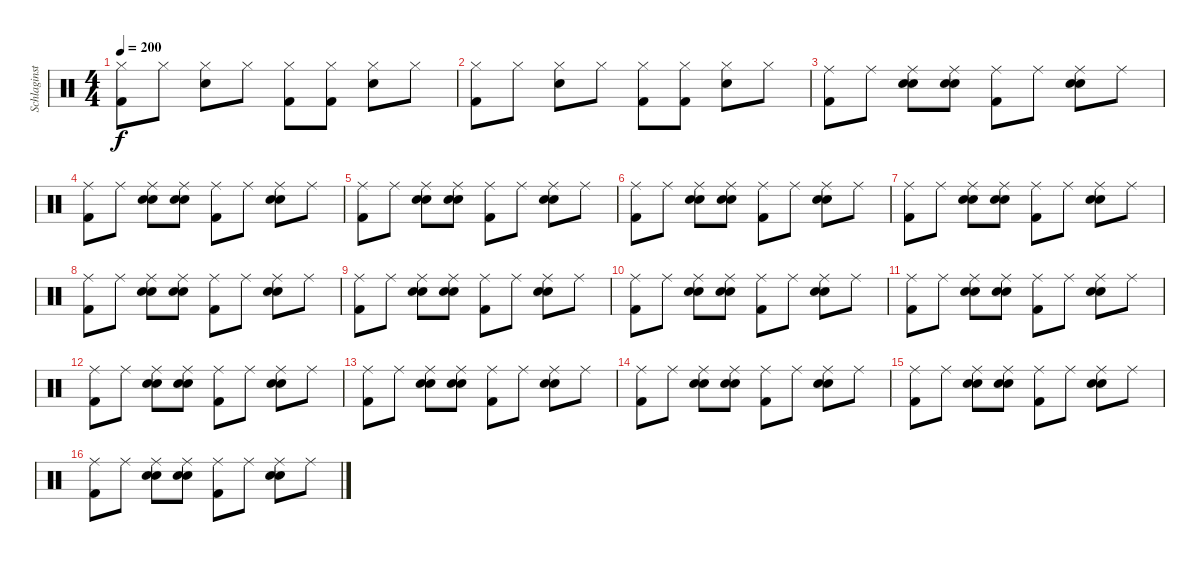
\track ("Schlaginstrumente - Auswahl" "Schlaginst") {instrument percussion}
\staff {score}
\articulation defaults
\ts (4 4)
\tempo 200
\clef neutral
\ks c
("Hi-Hat (closed)" "Kick (hit) 2").8{dy f} "Hi-Hat (closed)".8 ("Hi-Hat (closed)" "Electric Snare (hit)").8 "Hi-Hat (closed)".8 ("Hi-Hat (closed)" "Kick (hit) 2").8 ("Hi-Hat (closed)" "Kick (hit) 2").8 ("Hi-Hat (closed)" "Electric Snare (hit)").8 "Hi-Hat (closed)".8 |
("Hi-Hat (closed)" "Kick (hit) 2").8 "Hi-Hat (closed)".8 ("Hi-Hat (closed)" "Electric Snare (hit)").8 "Hi-Hat (closed)".8 ("Hi-Hat (closed)" "Kick (hit) 2").8 ("Hi-Hat (closed)" "Kick (hit) 2").8 ("Hi-Hat (closed)" "Electric Snare (hit)").8 "Hi-Hat (closed)".8 |
("Kick (hit) 2" "Ride (middle)").8 "Ride (middle)".8 ("Hand Clap (hit)" "Electric Snare (hit)" "Ride (middle)").8 ("Hand Clap (hit)" "Electric Snare (hit)" "Ride (middle)").8 ("Kick (hit) 2" "Ride (middle)").8 "Ride (middle)".8 ("Hand Clap (hit)" "Electric Snare (hit)" "Ride (middle)").8 "Ride (middle)".8 |
("Kick (hit) 2" "Ride (middle)").8 "Ride (middle)".8 ("Hand Clap (hit)" "Electric Snare (hit)" "Ride (middle)").8 ("Hand Clap (hit)" "Electric Snare (hit)" "Ride (middle)").8 ("Kick (hit) 2" "Ride (middle)").8 "Ride (middle)".8 ("Hand Clap (hit)" "Electric Snare (hit)" "Ride (middle)").8 "Ride (middle)".8 |
("Kick (hit) 2" "Ride (middle)").8 "Ride (middle)".8 ("Hand Clap (hit)" "Electric Snare (hit)" "Ride (middle)").8 ("Hand Clap (hit)" "Electric Snare (hit)" "Ride (middle)").8 ("Kick (hit) 2" "Ride (middle)").8 "Ride (middle)".8 ("Hand Clap (hit)" "Electric Snare (hit)" "Ride (middle)").8 "Ride (middle)".8 |
("Kick (hit) 2" "Ride (middle)").8 "Ride (middle)".8 ("Hand Clap (hit)" "Electric Snare (hit)" "Ride (middle)").8 ("Hand Clap (hit)" "Electric Snare (hit)" "Ride (middle)").8 ("Kick (hit) 2" "Ride (middle)").8 "Ride (middle)".8 ("Hand Clap (hit)" "Electric Snare (hit)" "Ride (middle)").8 "Ride (middle)".8 |
("Kick (hit) 2" "Ride (middle)").8 "Ride (middle)".8 ("Hand Clap (hit)" "Electric Snare (hit)" "Ride (middle)").8 ("Hand Clap (hit)" "Electric Snare (hit)" "Ride (middle)").8 ("Kick (hit) 2" "Ride (middle)").8 "Ride (middle)".8 ("Hand Clap (hit)" "Electric Snare (hit)" "Ride (middle)").8 "Ride (middle)".8 |
("Kick (hit) 2" "Ride (middle)").8 "Ride (middle)".8 ("Hand Clap (hit)" "Electric Snare (hit)" "Ride (middle)").8 ("Hand Clap (hit)" "Electric Snare (hit)" "Ride (middle)").8 ("Kick (hit) 2" "Ride (middle)").8 "Ride (middle)".8 ("Hand Clap (hit)" "Electric Snare (hit)" "Ride (middle)").8 "Ride (middle)".8 |
("Kick (hit) 2" "Ride (middle)").8 "Ride (middle)".8 ("Hand Clap (hit)" "Electric Snare (hit)" "Ride (middle)").8 ("Hand Clap (hit)" "Electric Snare (hit)" "Ride (middle)").8 ("Kick (hit) 2" "Ride (middle)").8 "Ride (middle)".8 ("Hand Clap (hit)" "Electric Snare (hit)" "Ride (middle)").8 "Ride (middle)".8 |
("Kick (hit) 2" "Ride (middle)").8 "Ride (middle)".8 ("Hand Clap (hit)" "Electric Snare (hit)" "Ride (middle)").8 ("Hand Clap (hit)" "Electric Snare (hit)" "Ride (middle)").8 ("Kick (hit) 2" "Ride (middle)").8 "Ride (middle)".8 ("Hand Clap (hit)" "Electric Snare (hit)" "Ride (middle)").8 "Ride (middle)".8 |
("Kick (hit) 2" "Ride (middle)").8 "Ride (middle)".8 ("Hand Clap (hit)" "Electric Snare (hit)" "Ride (middle)").8 ("Hand Clap (hit)" "Electric Snare (hit)" "Ride (middle)").8 ("Kick (hit) 2" "Ride (middle)").8 "Ride (middle)".8 ("Hand Clap (hit)" "Electric Snare (hit)" "Ride (middle)").8 "Ride (middle)".8 |
("Kick (hit) 2" "Ride (middle)").8 "Ride (middle)".8 ("Hand Clap (hit)" "Electric Snare (hit)" "Ride (middle)").8 ("Hand Clap (hit)" "Electric Snare (hit)" "Ride (middle)").8 ("Kick (hit) 2" "Ride (middle)").8 "Ride (middle)".8 ("Hand Clap (hit)" "Electric Snare (hit)" "Ride (middle)").8 "Ride (middle)".8 |
("Kick (hit) 2" "Ride (middle)").8 "Ride (middle)".8 ("Hand Clap (hit)" "Electric Snare (hit)" "Ride (middle)").8 ("Hand Clap (hit)" "Electric Snare (hit)" "Ride (middle)").8 ("Kick (hit) 2" "Ride (middle)").8 "Ride (middle)".8 ("Hand Clap (hit)" "Electric Snare (hit)" "Ride (middle)").8 "Ride (middle)".8 |
("Kick (hit) 2" "Ride (middle)").8 "Ride (middle)".8 ("Hand Clap (hit)" "Electric Snare (hit)" "Ride (middle)").8 ("Hand Clap (hit)" "Electric Snare (hit)" "Ride (middle)").8 ("Kick (hit) 2" "Ride (middle)").8 "Ride (middle)".8 ("Hand Clap (hit)" "Electric Snare (hit)" "Ride (middle)").8 "Ride (middle)".8 |
("Kick (hit) 2" "Ride (middle)").8 "Ride (middle)".8 ("Hand Clap (hit)" "Electric Snare (hit)" "Ride (middle)").8 ("Hand Clap (hit)" "Electric Snare (hit)" "Ride (middle)").8 ("Kick (hit) 2" "Ride (middle)").8 "Ride (middle)".8 ("Hand Clap (hit)" "Electric Snare (hit)" "Ride (middle)").8 "Ride (middle)".8 |
("Kick (hit) 2" "Ride (middle)").8 "Ride (middle)".8 ("Hand Clap (hit)" "Electric Snare (hit)" "Ride (middle)").8 ("Hand Clap (hit)" "Electric Snare (hit)" "Ride (middle)").8 ("Kick (hit) 2" "Ride (middle)").8 "Ride (middle)".8 ("Hand Clap (hit)" "Electric Snare (hit)" "Ride (middle)").8 "Ride (middle)".8
